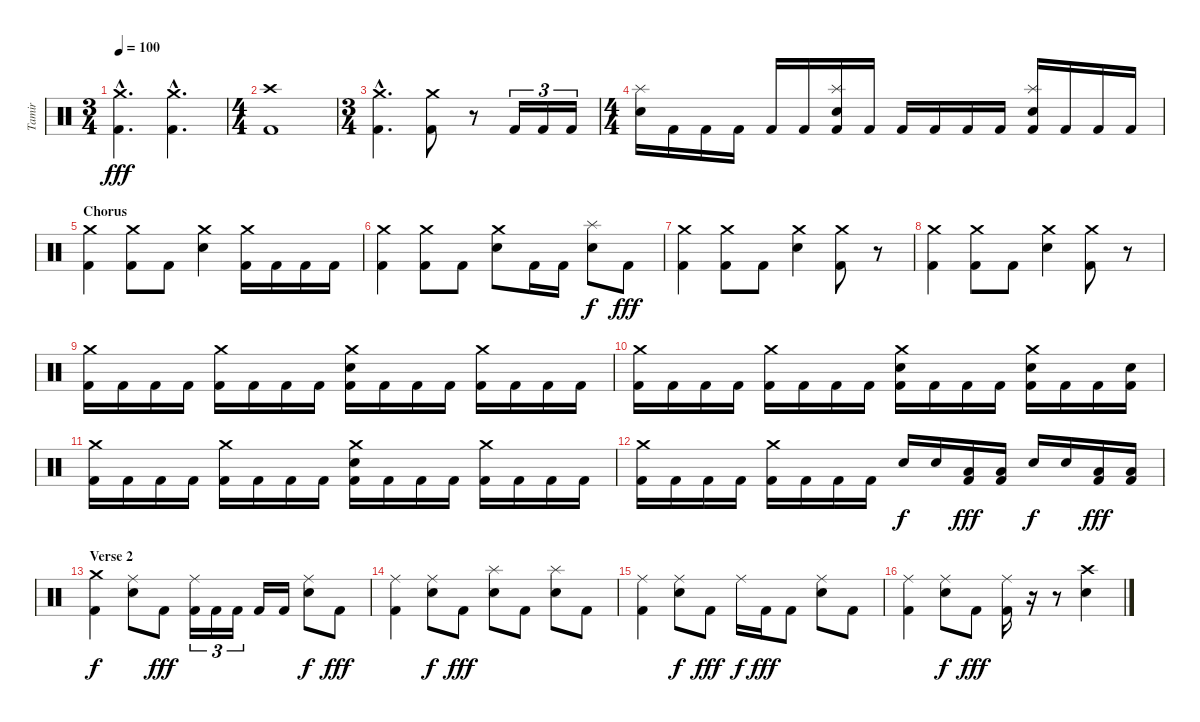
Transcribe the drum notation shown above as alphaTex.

\track ("Tamir" "Tamir") {instrument percussion}
\staff {score}
\articulation defaults
\ts (3 4)
\tempo 100
\clef neutral
\ks c
("Crash medium (hit)"{hac} "Kick (hit) 2"{hac}).4{d dy fff} ("Crash medium (hit)"{hac} "Kick (hit) 2"{hac}).4{d} |
\ts (4 4)
("Crash high (hit)" "Kick (hit) 2").1 |
\ts (3 4)
("Crash medium (hit)"{hac} "Kick (hit) 2"{hac}).4{d} ("Crash medium (hit)" "Kick (hit) 2").8 r.8 "Kick (hit) 2".16{tu (3 2)} "Kick (hit) 2".16{tu (3 2)} "Kick (hit) 2".16{tu (3 2)} |
\ts (4 4)
("Splash (hit)" "Electric Snare (hit)").16 "Kick (hit) 2".16 "Kick (hit) 2".16 "Kick (hit) 2".16 "Kick (hit) 2".16 "Kick (hit) 2".16 ("Splash (hit)" "Electric Snare (hit)" "Kick (hit) 2").16 "Kick (hit) 2".16 "Kick (hit) 2".16 "Kick (hit) 2".16 "Kick (hit) 2".16 "Kick (hit) 2".16 ("Splash (hit)" "Electric Snare (hit)" "Kick (hit) 2").16 "Kick (hit) 2".16 "Kick (hit) 2".16 "Kick (hit) 2".16 |
\section ("" "Chorus")
("Crash medium (hit)" "Kick (hit) 2").4 ("Crash medium (hit)" "Kick (hit) 2").8 "Kick (hit) 2".8 ("Crash medium (hit)" "Electric Snare (hit)").4 ("Crash medium (hit)" "Kick (hit) 2").16 "Kick (hit) 2".16 "Kick (hit) 2".16 "Kick (hit) 2".16 |
("Crash medium (hit)" "Kick (hit) 2").4 ("Crash medium (hit)" "Kick (hit) 2").8 "Kick (hit) 2".8 ("Crash medium (hit)" "Electric Snare (hit)").8 "Kick (hit) 2".16 "Kick (hit) 2".16 ("Splash (hit)" "Electric Snare (hit)").8{dy f} "Kick (hit) 2".8{dy fff} |
("Crash medium (hit)" "Kick (hit) 2").4 ("Crash medium (hit)" "Kick (hit) 2").8 "Kick (hit) 2".8 ("Crash medium (hit)" "Electric Snare (hit)").4 ("Crash medium (hit)" "Kick (hit) 2").8 r.8 |
("Crash medium (hit)" "Kick (hit) 2").4 ("Crash medium (hit)" "Kick (hit) 2").8 "Kick (hit) 2".8 ("Crash medium (hit)" "Electric Snare (hit)").4 ("Crash medium (hit)" "Kick (hit) 2").8 r.8 |
("Crash medium (hit)" "Kick (hit) 2").16 "Kick (hit) 2".16 "Kick (hit) 2".16 "Kick (hit) 2".16 ("Crash medium (hit)" "Kick (hit) 2").16 "Kick (hit) 2".16 "Kick (hit) 2".16 "Kick (hit) 2".16 ("Crash medium (hit)" "Electric Snare (hit)" "Kick (hit) 2").16 "Kick (hit) 2".16 "Kick (hit) 2".16 "Kick (hit) 2".16 ("Crash medium (hit)" "Kick (hit) 2").16 "Kick (hit) 2".16 "Kick (hit) 2".16 "Kick (hit) 2".16 |
("Crash medium (hit)" "Kick (hit) 2").16 "Kick (hit) 2".16 "Kick (hit) 2".16 "Kick (hit) 2".16 ("Crash medium (hit)" "Kick (hit) 2").16 "Kick (hit) 2".16 "Kick (hit) 2".16 "Kick (hit) 2".16 ("Crash medium (hit)" "Electric Snare (hit)" "Kick (hit) 2").16 "Kick (hit) 2".16 "Kick (hit) 2".16 "Kick (hit) 2".16 ("Crash medium (hit)" "Electric Snare (hit)" "Kick (hit) 2").16 "Kick (hit) 2".16 "Kick (hit) 2".16 ("Electric Snare (hit)" "Kick (hit) 2").16 |
("Crash medium (hit)" "Kick (hit) 2").16 "Kick (hit) 2".16 "Kick (hit) 2".16 "Kick (hit) 2".16 ("Crash medium (hit)" "Kick (hit) 2").16 "Kick (hit) 2".16 "Kick (hit) 2".16 "Kick (hit) 2".16 ("Crash medium (hit)" "Electric Snare (hit)" "Kick (hit) 2").16 "Kick (hit) 2".16 "Kick (hit) 2".16 "Kick (hit) 2".16 ("Crash medium (hit)" "Kick (hit) 2").16 "Kick (hit) 2".16 "Kick (hit) 2".16 "Kick (hit) 2".16 |
("Crash medium (hit)" "Kick (hit) 2").16 "Kick (hit) 2".16 "Kick (hit) 2".16 "Kick (hit) 2".16 ("Crash medium (hit)" "Kick (hit) 2").16 "Kick (hit) 2".16 "Kick (hit) 2".16 "Kick (hit) 2".16 "Electric Snare (hit)".16{dy f} "Electric Snare (hit)".16 ("Low Tom (hit)" "Kick (hit) 2").16{dy fff} ("Low Tom (hit)" "Kick (hit) 2").16 "Electric Snare (hit)".16{dy f} "Electric Snare (hit)".16 ("Low Tom (hit)" "Kick (hit) 2").16{dy fff} ("Low Tom (hit)" "Kick (hit) 2").16 |
\section ("" "Verse 2")
("Crash medium (hit)" "Kick (hit) 2").4{dy f} ("Ride (middle)" "Electric Snare (hit)").8 "Kick (hit) 2".8{dy fff} ("Ride (middle)" "Kick (hit) 2").16{tu (3 2)} "Kick (hit) 2".16{tu (3 2)} "Kick (hit) 2".16{tu (3 2)} "Kick (hit) 2".16 "Kick (hit) 2".16 ("Ride (middle)" "Electric Snare (hit)").8{dy f} "Kick (hit) 2".8{dy fff} |
("Ride (middle)" "Kick (hit) 2").4 ("Ride (middle)" "Electric Snare (hit)").8{dy f} "Kick (hit) 2".8{dy fff} ("Splash (hit)" "Electric Snare (hit)").8 "Kick (hit) 2".8 ("Splash (hit)" "Electric Snare (hit)").8 "Kick (hit) 2".8 |
("Ride (middle)" "Kick (hit) 2").4 ("Ride (middle)" "Electric Snare (hit)").8{dy f} "Kick (hit) 2".8{dy fff} "Ride (middle)".16{dy f} "Kick (hit) 2".16{dy fff} "Kick (hit) 2".8 ("Ride (middle)" "Electric Snare (hit)").8 "Kick (hit) 2".8 |
("Ride (middle)" "Kick (hit) 2").4 ("Ride (middle)" "Electric Snare (hit)").8{dy f} "Kick (hit) 2".8{dy fff} ("Ride (middle)" "Kick (hit) 2").16 r.16 r.8 ("Crash high (hit)" "Electric Snare (hit)").4
